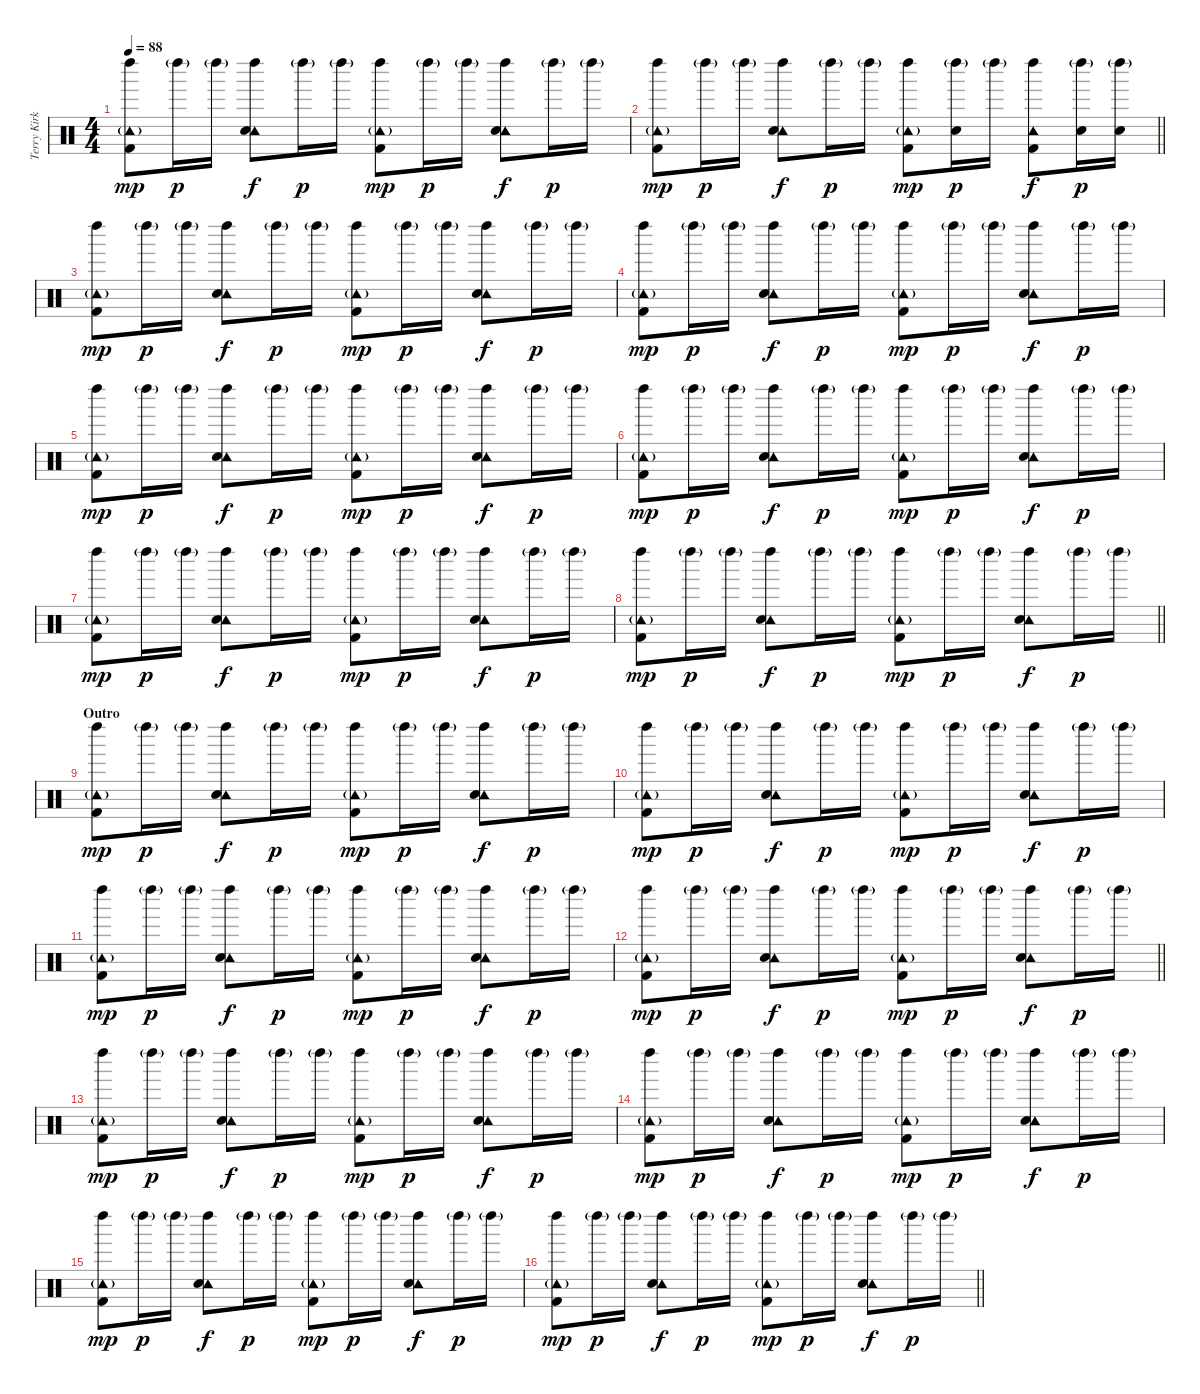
\track ("Terry Kirkbride " "Terry Kirk") {instrument percussion}
\staff {score}
\articulation defaults
\ts (4 4)
\tempo 88
\clef neutral
\ks c
("Left Maraca (hit)" "Tambourine (hit)"{g} "Kick (hit) 2").8{dy mp} "Left Maraca (hit)"{g}.16{dy p} "Left Maraca (hit)"{g}.16 ("Left Maraca (hit)" "Tambourine (hit)" "Snare (hit) 2").8{dy f} "Left Maraca (hit)"{g}.16{dy p} "Left Maraca (hit)"{g}.16 ("Left Maraca (hit)" "Tambourine (hit)"{g} "Kick (hit) 2").8{dy mp} "Left Maraca (hit)"{g}.16{dy p} "Left Maraca (hit)"{g}.16 ("Left Maraca (hit)" "Tambourine (hit)" "Snare (hit) 2").8{dy f} "Left Maraca (hit)"{g}.16{dy p} "Left Maraca (hit)"{g}.16 |
\barLineRight lightlight
("Left Maraca (hit)" "Tambourine (hit)"{g} "Kick (hit) 2").8{dy mp} "Left Maraca (hit)"{g}.16{dy p} "Left Maraca (hit)"{g}.16 ("Left Maraca (hit)" "Tambourine (hit)" "Snare (hit) 2").8{dy f} "Left Maraca (hit)"{g}.16{dy p} "Left Maraca (hit)"{g}.16 ("Left Maraca (hit)" "Tambourine (hit)"{g} "Kick (hit) 2").8{dy mp} ("Left Maraca (hit)"{g} "Snare (hit) 2").16{dy p} "Left Maraca (hit)"{g}.16 ("Left Maraca (hit)" "Tambourine (hit)" "Kick (hit) 2").8{dy f} ("Left Maraca (hit)"{g} "Snare (hit) 2").16{dy p} ("Left Maraca (hit)"{g} "Snare (hit) 2").16 |
("Left Maraca (hit)" "Tambourine (hit)"{g} "Kick (hit) 2").8{dy mp} "Left Maraca (hit)"{g}.16{dy p} "Left Maraca (hit)"{g}.16 ("Left Maraca (hit)" "Tambourine (hit)" "Snare (hit) 2").8{dy f} "Left Maraca (hit)"{g}.16{dy p} "Left Maraca (hit)"{g}.16 ("Left Maraca (hit)" "Tambourine (hit)"{g} "Kick (hit) 2").8{dy mp} "Left Maraca (hit)"{g}.16{dy p} "Left Maraca (hit)"{g}.16 ("Left Maraca (hit)" "Tambourine (hit)" "Snare (hit) 2").8{dy f} "Left Maraca (hit)"{g}.16{dy p} "Left Maraca (hit)"{g}.16 |
("Left Maraca (hit)" "Tambourine (hit)"{g} "Kick (hit) 2").8{dy mp} "Left Maraca (hit)"{g}.16{dy p} "Left Maraca (hit)"{g}.16 ("Left Maraca (hit)" "Tambourine (hit)" "Snare (hit) 2").8{dy f} "Left Maraca (hit)"{g}.16{dy p} "Left Maraca (hit)"{g}.16 ("Left Maraca (hit)" "Tambourine (hit)"{g} "Kick (hit) 2").8{dy mp} "Left Maraca (hit)"{g}.16{dy p} "Left Maraca (hit)"{g}.16 ("Left Maraca (hit)" "Tambourine (hit)" "Snare (hit) 2").8{dy f} "Left Maraca (hit)"{g}.16{dy p} "Left Maraca (hit)"{g}.16 |
("Left Maraca (hit)" "Tambourine (hit)"{g} "Kick (hit) 2").8{dy mp} "Left Maraca (hit)"{g}.16{dy p} "Left Maraca (hit)"{g}.16 ("Left Maraca (hit)" "Tambourine (hit)" "Snare (hit) 2").8{dy f} "Left Maraca (hit)"{g}.16{dy p} "Left Maraca (hit)"{g}.16 ("Left Maraca (hit)" "Tambourine (hit)"{g} "Kick (hit) 2").8{dy mp} "Left Maraca (hit)"{g}.16{dy p} "Left Maraca (hit)"{g}.16 ("Left Maraca (hit)" "Tambourine (hit)" "Snare (hit) 2").8{dy f} "Left Maraca (hit)"{g}.16{dy p} "Left Maraca (hit)"{g}.16 |
("Left Maraca (hit)" "Tambourine (hit)"{g} "Kick (hit) 2").8{dy mp} "Left Maraca (hit)"{g}.16{dy p} "Left Maraca (hit)"{g}.16 ("Left Maraca (hit)" "Tambourine (hit)" "Snare (hit) 2").8{dy f} "Left Maraca (hit)"{g}.16{dy p} "Left Maraca (hit)"{g}.16 ("Left Maraca (hit)" "Tambourine (hit)"{g} "Kick (hit) 2").8{dy mp} "Left Maraca (hit)"{g}.16{dy p} "Left Maraca (hit)"{g}.16 ("Left Maraca (hit)" "Tambourine (hit)" "Snare (hit) 2").8{dy f} "Left Maraca (hit)"{g}.16{dy p} "Left Maraca (hit)"{g}.16 |
("Left Maraca (hit)" "Tambourine (hit)"{g} "Kick (hit) 2").8{dy mp} "Left Maraca (hit)"{g}.16{dy p} "Left Maraca (hit)"{g}.16 ("Left Maraca (hit)" "Tambourine (hit)" "Snare (hit) 2").8{dy f} "Left Maraca (hit)"{g}.16{dy p} "Left Maraca (hit)"{g}.16 ("Left Maraca (hit)" "Tambourine (hit)"{g} "Kick (hit) 2").8{dy mp} "Left Maraca (hit)"{g}.16{dy p} "Left Maraca (hit)"{g}.16 ("Left Maraca (hit)" "Tambourine (hit)" "Snare (hit) 2").8{dy f} "Left Maraca (hit)"{g}.16{dy p} "Left Maraca (hit)"{g}.16 |
\barLineRight lightlight
("Left Maraca (hit)" "Tambourine (hit)"{g} "Kick (hit) 2").8{dy mp} "Left Maraca (hit)"{g}.16{dy p} "Left Maraca (hit)"{g}.16 ("Left Maraca (hit)" "Tambourine (hit)" "Snare (hit) 2").8{dy f} "Left Maraca (hit)"{g}.16{dy p} "Left Maraca (hit)"{g}.16 ("Left Maraca (hit)" "Tambourine (hit)"{g} "Kick (hit) 2").8{dy mp} "Left Maraca (hit)"{g}.16{dy p} "Left Maraca (hit)"{g}.16 ("Left Maraca (hit)" "Tambourine (hit)" "Snare (hit) 2").8{dy f} "Left Maraca (hit)"{g}.16{dy p} "Left Maraca (hit)"{g}.16 |
\section ("" "Outro")
("Left Maraca (hit)" "Tambourine (hit)"{g} "Kick (hit) 2").8{dy mp} "Left Maraca (hit)"{g}.16{dy p} "Left Maraca (hit)"{g}.16 ("Left Maraca (hit)" "Tambourine (hit)" "Snare (hit) 2").8{dy f} "Left Maraca (hit)"{g}.16{dy p} "Left Maraca (hit)"{g}.16 ("Left Maraca (hit)" "Tambourine (hit)"{g} "Kick (hit) 2").8{dy mp} "Left Maraca (hit)"{g}.16{dy p} "Left Maraca (hit)"{g}.16 ("Left Maraca (hit)" "Tambourine (hit)" "Snare (hit) 2").8{dy f} "Left Maraca (hit)"{g}.16{dy p} "Left Maraca (hit)"{g}.16 |
("Left Maraca (hit)" "Tambourine (hit)"{g} "Kick (hit) 2").8{dy mp} "Left Maraca (hit)"{g}.16{dy p} "Left Maraca (hit)"{g}.16 ("Left Maraca (hit)" "Tambourine (hit)" "Snare (hit) 2").8{dy f} "Left Maraca (hit)"{g}.16{dy p} "Left Maraca (hit)"{g}.16 ("Left Maraca (hit)" "Tambourine (hit)"{g} "Kick (hit) 2").8{dy mp} "Left Maraca (hit)"{g}.16{dy p} "Left Maraca (hit)"{g}.16 ("Left Maraca (hit)" "Tambourine (hit)" "Snare (hit) 2").8{dy f} "Left Maraca (hit)"{g}.16{dy p} "Left Maraca (hit)"{g}.16 |
("Left Maraca (hit)" "Tambourine (hit)"{g} "Kick (hit) 2").8{dy mp} "Left Maraca (hit)"{g}.16{dy p} "Left Maraca (hit)"{g}.16 ("Left Maraca (hit)" "Tambourine (hit)" "Snare (hit) 2").8{dy f} "Left Maraca (hit)"{g}.16{dy p} "Left Maraca (hit)"{g}.16 ("Left Maraca (hit)" "Tambourine (hit)"{g} "Kick (hit) 2").8{dy mp} "Left Maraca (hit)"{g}.16{dy p} "Left Maraca (hit)"{g}.16 ("Left Maraca (hit)" "Tambourine (hit)" "Snare (hit) 2").8{dy f} "Left Maraca (hit)"{g}.16{dy p} "Left Maraca (hit)"{g}.16 |
\barLineRight lightlight
("Left Maraca (hit)" "Tambourine (hit)"{g} "Kick (hit) 2").8{dy mp} "Left Maraca (hit)"{g}.16{dy p} "Left Maraca (hit)"{g}.16 ("Left Maraca (hit)" "Tambourine (hit)" "Snare (hit) 2").8{dy f} "Left Maraca (hit)"{g}.16{dy p} "Left Maraca (hit)"{g}.16 ("Left Maraca (hit)" "Tambourine (hit)"{g} "Kick (hit) 2").8{dy mp} "Left Maraca (hit)"{g}.16{dy p} "Left Maraca (hit)"{g}.16 ("Left Maraca (hit)" "Tambourine (hit)" "Snare (hit) 2").8{dy f} "Left Maraca (hit)"{g}.16{dy p} "Left Maraca (hit)"{g}.16 |
("Left Maraca (hit)" "Tambourine (hit)"{g} "Kick (hit) 2").8{dy mp} "Left Maraca (hit)"{g}.16{dy p} "Left Maraca (hit)"{g}.16 ("Left Maraca (hit)" "Tambourine (hit)" "Snare (hit) 2").8{dy f} "Left Maraca (hit)"{g}.16{dy p} "Left Maraca (hit)"{g}.16 ("Left Maraca (hit)" "Tambourine (hit)"{g} "Kick (hit) 2").8{dy mp} "Left Maraca (hit)"{g}.16{dy p} "Left Maraca (hit)"{g}.16 ("Left Maraca (hit)" "Tambourine (hit)" "Snare (hit) 2").8{dy f} "Left Maraca (hit)"{g}.16{dy p} "Left Maraca (hit)"{g}.16 |
("Left Maraca (hit)" "Tambourine (hit)"{g} "Kick (hit) 2").8{dy mp} "Left Maraca (hit)"{g}.16{dy p} "Left Maraca (hit)"{g}.16 ("Left Maraca (hit)" "Tambourine (hit)" "Snare (hit) 2").8{dy f} "Left Maraca (hit)"{g}.16{dy p} "Left Maraca (hit)"{g}.16 ("Left Maraca (hit)" "Tambourine (hit)"{g} "Kick (hit) 2").8{dy mp} "Left Maraca (hit)"{g}.16{dy p} "Left Maraca (hit)"{g}.16 ("Left Maraca (hit)" "Tambourine (hit)" "Snare (hit) 2").8{dy f} "Left Maraca (hit)"{g}.16{dy p} "Left Maraca (hit)"{g}.16 |
("Left Maraca (hit)" "Tambourine (hit)"{g} "Kick (hit) 2").8{dy mp} "Left Maraca (hit)"{g}.16{dy p} "Left Maraca (hit)"{g}.16 ("Left Maraca (hit)" "Tambourine (hit)" "Snare (hit) 2").8{dy f} "Left Maraca (hit)"{g}.16{dy p} "Left Maraca (hit)"{g}.16 ("Left Maraca (hit)" "Tambourine (hit)"{g} "Kick (hit) 2").8{dy mp} "Left Maraca (hit)"{g}.16{dy p} "Left Maraca (hit)"{g}.16 ("Left Maraca (hit)" "Tambourine (hit)" "Snare (hit) 2").8{dy f} "Left Maraca (hit)"{g}.16{dy p} "Left Maraca (hit)"{g}.16 |
\barLineRight lightlight
("Left Maraca (hit)" "Tambourine (hit)"{g} "Kick (hit) 2").8{dy mp} "Left Maraca (hit)"{g}.16{dy p} "Left Maraca (hit)"{g}.16 ("Left Maraca (hit)" "Tambourine (hit)" "Snare (hit) 2").8{dy f} "Left Maraca (hit)"{g}.16{dy p} "Left Maraca (hit)"{g}.16 ("Left Maraca (hit)" "Tambourine (hit)"{g} "Kick (hit) 2").8{dy mp} "Left Maraca (hit)"{g}.16{dy p} "Left Maraca (hit)"{g}.16 ("Left Maraca (hit)" "Tambourine (hit)" "Snare (hit) 2").8{dy f} "Left Maraca (hit)"{g}.16{dy p} "Left Maraca (hit)"{g}.16
